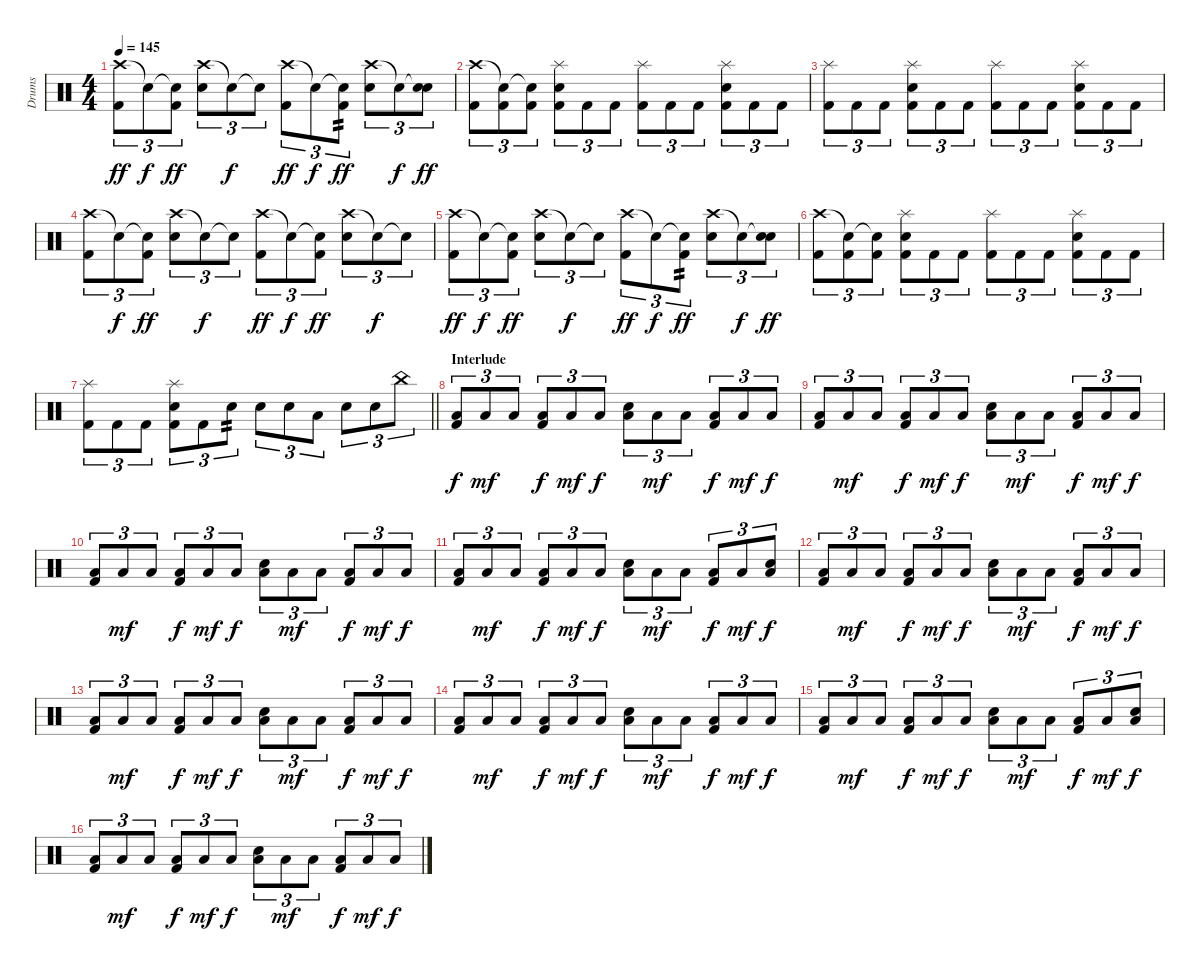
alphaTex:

\track ("Drums" "Drums") {instrument percussion}
\staff {score}
\articulation defaults
\ts (4 4)
\tempo 145
\clef neutral
\ks c
("Crash high (hit)" "Kick (hit) 2").8{tu (3 2) dy ff} "Snare (hit)"{t}.8{tu (3 2) dy f} ("Snare (hit)"{t} "Kick (hit) 2").8{tu (3 2) dy ff} ("Crash high (hit)" "Snare (hit) 2").8{tu (3 2)} "Snare (hit)"{t}.8{tu (3 2) dy f} "Snare (hit)"{t}.8{tu (3 2)} ("Crash high (hit)" "Kick (hit) 2").8{tu (3 2) dy ff} "Snare (hit)"{t}.8{tu (3 2) dy f} ("Snare (hit)"{t} "Kick (hit) 2").8{tu (3 2) tp 2 dy ff} ("Crash high (hit)" "Snare (hit) 2").8{tu (3 2)} "Snare (hit)"{t}.8{tu (3 2) dy f} ("Snare (hit)"{t} "Snare (hit) 2").8{tu (3 2) dy ff} |
("Crash high (hit)" "Kick (hit) 2").8{tu (3 2)} ("Snare (hit)"{t} "Kick (hit) 2").8{tu (3 2)} ("Snare (hit)"{t} "Kick (hit) 2").8{tu (3 2)} ("Splash (hit)" "Snare (hit) 2" "Kick (hit) 2").8{tu (3 2)} "Kick (hit) 2".8{tu (3 2)} "Kick (hit) 2".8{tu (3 2)} ("Splash (hit)" "Kick (hit) 2").8{tu (3 2)} "Kick (hit) 2".8{tu (3 2)} "Kick (hit) 2".8{tu (3 2)} ("Splash (hit)" "Kick (hit) 2" "Snare (hit) 2").8{tu (3 2)} "Kick (hit) 2".8{tu (3 2)} "Kick (hit) 2".8{tu (3 2)} |
("Splash (hit)" "Kick (hit) 2").8{tu (3 2)} "Kick (hit) 2".8{tu (3 2)} "Kick (hit) 2".8{tu (3 2)} ("Splash (hit)" "Snare (hit) 2" "Kick (hit) 2").8{tu (3 2)} "Kick (hit) 2".8{tu (3 2)} "Kick (hit) 2".8{tu (3 2)} ("Splash (hit)" "Kick (hit) 2").8{tu (3 2)} "Kick (hit) 2".8{tu (3 2)} "Kick (hit) 2".8{tu (3 2)} ("Splash (hit)" "Kick (hit) 2" "Snare (hit) 2").8{tu (3 2)} "Kick (hit) 2".8{tu (3 2)} "Kick (hit) 2".8{tu (3 2)} |
("Crash high (hit)" "Kick (hit) 2").8{tu (3 2)} "Snare (hit)"{t}.8{tu (3 2) dy f} ("Snare (hit)"{t} "Kick (hit) 2").8{tu (3 2) dy ff} ("Crash high (hit)" "Snare (hit) 2").8{tu (3 2)} "Snare (hit)"{t}.8{tu (3 2) dy f} "Snare (hit)"{t}.8{tu (3 2)} ("Crash high (hit)" "Kick (hit) 2").8{tu (3 2) dy ff} "Snare (hit)"{t}.8{tu (3 2) dy f} ("Snare (hit)"{t} "Kick (hit) 2").8{tu (3 2) dy ff} ("Crash high (hit)" "Snare (hit) 2").8{tu (3 2)} "Snare (hit)"{t}.8{tu (3 2) dy f} "Snare (hit)"{t}.8{tu (3 2)} |
("Crash high (hit)" "Kick (hit) 2").8{tu (3 2) dy ff} "Snare (hit)"{t}.8{tu (3 2) dy f} ("Snare (hit)"{t} "Kick (hit) 2").8{tu (3 2) dy ff} ("Crash high (hit)" "Snare (hit) 2").8{tu (3 2)} "Snare (hit)"{t}.8{tu (3 2) dy f} "Snare (hit)"{t}.8{tu (3 2)} ("Crash high (hit)" "Kick (hit) 2").8{tu (3 2) dy ff} "Snare (hit)"{t}.8{tu (3 2) dy f} ("Snare (hit)"{t} "Kick (hit) 2").8{tu (3 2) tp 2 dy ff} ("Crash high (hit)" "Snare (hit) 2").8{tu (3 2)} "Snare (hit)"{t}.8{tu (3 2) dy f} ("Snare (hit)"{t} "Snare (hit) 2").8{tu (3 2) dy ff} |
("Crash high (hit)" "Kick (hit) 2").8{tu (3 2)} ("Snare (hit)"{t} "Kick (hit) 2").8{tu (3 2)} ("Snare (hit)"{t} "Kick (hit) 2").8{tu (3 2)} ("Splash (hit)" "Snare (hit) 2" "Kick (hit) 2").8{tu (3 2)} "Kick (hit) 2".8{tu (3 2)} "Kick (hit) 2".8{tu (3 2)} ("Splash (hit)" "Kick (hit) 2").8{tu (3 2)} "Kick (hit) 2".8{tu (3 2)} "Kick (hit) 2".8{tu (3 2)} ("Splash (hit)" "Kick (hit) 2" "Snare (hit) 2").8{tu (3 2)} "Kick (hit) 2".8{tu (3 2)} "Kick (hit) 2".8{tu (3 2)} |
\barLineRight lightlight
("Splash (hit)" "Kick (hit) 2").8{tu (3 2)} "Kick (hit) 2".8{tu (3 2)} "Kick (hit) 2".8{tu (3 2)} ("Splash (hit)" "Snare (hit) 2" "Kick (hit) 2").8{tu (3 2)} "Kick (hit) 2".8{tu (3 2)} "Electric Snare (hit)".8{tu (3 2) tp 2} "Electric Snare (hit)".8{tu (3 2)} "Electric Snare (hit)".8{tu (3 2)} "Low Floor Tom (hit)".8{tu (3 2)} "Electric Snare (hit)".8{tu (3 2)} "Electric Snare (hit)".8{tu (3 2)} "China (hit)".8{tu (3 2)} |
\section ("" "Interlude")
("Kick (hit) 2" "Low Floor Tom (hit)").8{tu (3 2) dy f} "Low Floor Tom (hit)".8{tu (3 2) dy mf} "Low Floor Tom (hit)".8{tu (3 2)} ("Kick (hit) 2" "Low Floor Tom (hit)").8{tu (3 2) dy f} "Low Floor Tom (hit)".8{tu (3 2) dy mf} "Low Floor Tom (hit)".8{tu (3 2) dy f} ("Snare (hit) 2" "Low Floor Tom (hit)").8{tu (3 2)} "Low Floor Tom (hit)".8{tu (3 2) dy mf} "Low Floor Tom (hit)".8{tu (3 2)} ("Kick (hit) 2" "Low Floor Tom (hit)").8{tu (3 2) dy f} "Low Floor Tom (hit)".8{tu (3 2) dy mf} "Low Floor Tom (hit)".8{tu (3 2) dy f} |
("Kick (hit) 2" "Low Floor Tom (hit)").8{tu (3 2)} "Low Floor Tom (hit)".8{tu (3 2) dy mf} "Low Floor Tom (hit)".8{tu (3 2)} ("Kick (hit) 2" "Low Floor Tom (hit)").8{tu (3 2) dy f} "Low Floor Tom (hit)".8{tu (3 2) dy mf} "Low Floor Tom (hit)".8{tu (3 2) dy f} ("Snare (hit) 2" "Low Floor Tom (hit)").8{tu (3 2)} "Low Floor Tom (hit)".8{tu (3 2) dy mf} "Low Floor Tom (hit)".8{tu (3 2)} ("Kick (hit) 2" "Low Floor Tom (hit)").8{tu (3 2) dy f} "Low Floor Tom (hit)".8{tu (3 2) dy mf} "Low Floor Tom (hit)".8{tu (3 2) dy f} |
("Kick (hit) 2" "Low Floor Tom (hit)").8{tu (3 2)} "Low Floor Tom (hit)".8{tu (3 2) dy mf} "Low Floor Tom (hit)".8{tu (3 2)} ("Kick (hit) 2" "Low Floor Tom (hit)").8{tu (3 2) dy f} "Low Floor Tom (hit)".8{tu (3 2) dy mf} "Low Floor Tom (hit)".8{tu (3 2) dy f} ("Snare (hit) 2" "Low Floor Tom (hit)").8{tu (3 2)} "Low Floor Tom (hit)".8{tu (3 2) dy mf} "Low Floor Tom (hit)".8{tu (3 2)} ("Kick (hit) 2" "Low Floor Tom (hit)").8{tu (3 2) dy f} "Low Floor Tom (hit)".8{tu (3 2) dy mf} "Low Floor Tom (hit)".8{tu (3 2) dy f} |
("Kick (hit) 2" "Low Floor Tom (hit)").8{tu (3 2)} "Low Floor Tom (hit)".8{tu (3 2) dy mf} "Low Floor Tom (hit)".8{tu (3 2)} ("Kick (hit) 2" "Low Floor Tom (hit)").8{tu (3 2) dy f} "Low Floor Tom (hit)".8{tu (3 2) dy mf} "Low Floor Tom (hit)".8{tu (3 2) dy f} ("Snare (hit) 2" "Low Floor Tom (hit)").8{tu (3 2)} "Low Floor Tom (hit)".8{tu (3 2) dy mf} "Low Floor Tom (hit)".8{tu (3 2)} ("Kick (hit) 2" "Low Floor Tom (hit)").8{tu (3 2) dy f} "Low Floor Tom (hit)".8{tu (3 2) dy mf} ("Electric Snare (hit)" "Low Floor Tom (hit)").8{tu (3 2) dy f} |
("Kick (hit) 2" "Low Floor Tom (hit)").8{tu (3 2)} "Low Floor Tom (hit)".8{tu (3 2) dy mf} "Low Floor Tom (hit)".8{tu (3 2)} ("Kick (hit) 2" "Low Floor Tom (hit)").8{tu (3 2) dy f} "Low Floor Tom (hit)".8{tu (3 2) dy mf} "Low Floor Tom (hit)".8{tu (3 2) dy f} ("Snare (hit) 2" "Low Floor Tom (hit)").8{tu (3 2)} "Low Floor Tom (hit)".8{tu (3 2) dy mf} "Low Floor Tom (hit)".8{tu (3 2)} ("Kick (hit) 2" "Low Floor Tom (hit)").8{tu (3 2) dy f} "Low Floor Tom (hit)".8{tu (3 2) dy mf} "Low Floor Tom (hit)".8{tu (3 2) dy f} |
("Kick (hit) 2" "Low Floor Tom (hit)").8{tu (3 2)} "Low Floor Tom (hit)".8{tu (3 2) dy mf} "Low Floor Tom (hit)".8{tu (3 2)} ("Kick (hit) 2" "Low Floor Tom (hit)").8{tu (3 2) dy f} "Low Floor Tom (hit)".8{tu (3 2) dy mf} "Low Floor Tom (hit)".8{tu (3 2) dy f} ("Snare (hit) 2" "Low Floor Tom (hit)").8{tu (3 2)} "Low Floor Tom (hit)".8{tu (3 2) dy mf} "Low Floor Tom (hit)".8{tu (3 2)} ("Kick (hit) 2" "Low Floor Tom (hit)").8{tu (3 2) dy f} "Low Floor Tom (hit)".8{tu (3 2) dy mf} "Low Floor Tom (hit)".8{tu (3 2) dy f} |
("Kick (hit) 2" "Low Floor Tom (hit)").8{tu (3 2)} "Low Floor Tom (hit)".8{tu (3 2) dy mf} "Low Floor Tom (hit)".8{tu (3 2)} ("Kick (hit) 2" "Low Floor Tom (hit)").8{tu (3 2) dy f} "Low Floor Tom (hit)".8{tu (3 2) dy mf} "Low Floor Tom (hit)".8{tu (3 2) dy f} ("Snare (hit) 2" "Low Floor Tom (hit)").8{tu (3 2)} "Low Floor Tom (hit)".8{tu (3 2) dy mf} "Low Floor Tom (hit)".8{tu (3 2)} ("Kick (hit) 2" "Low Floor Tom (hit)").8{tu (3 2) dy f} "Low Floor Tom (hit)".8{tu (3 2) dy mf} "Low Floor Tom (hit)".8{tu (3 2) dy f} |
("Kick (hit) 2" "Low Floor Tom (hit)").8{tu (3 2)} "Low Floor Tom (hit)".8{tu (3 2) dy mf} "Low Floor Tom (hit)".8{tu (3 2)} ("Kick (hit) 2" "Low Floor Tom (hit)").8{tu (3 2) dy f} "Low Floor Tom (hit)".8{tu (3 2) dy mf} "Low Floor Tom (hit)".8{tu (3 2) dy f} ("Snare (hit) 2" "Low Floor Tom (hit)").8{tu (3 2)} "Low Floor Tom (hit)".8{tu (3 2) dy mf} "Low Floor Tom (hit)".8{tu (3 2)} ("Kick (hit) 2" "Low Floor Tom (hit)").8{tu (3 2) dy f} "Low Floor Tom (hit)".8{tu (3 2) dy mf} ("Electric Snare (hit)" "Low Floor Tom (hit)").8{tu (3 2) dy f} |
("Kick (hit) 2" "Low Floor Tom (hit)").8{tu (3 2)} "Low Floor Tom (hit)".8{tu (3 2) dy mf} "Low Floor Tom (hit)".8{tu (3 2)} ("Kick (hit) 2" "Low Floor Tom (hit)").8{tu (3 2) dy f} "Low Floor Tom (hit)".8{tu (3 2) dy mf} "Low Floor Tom (hit)".8{tu (3 2) dy f} ("Snare (hit) 2" "Low Floor Tom (hit)").8{tu (3 2)} "Low Floor Tom (hit)".8{tu (3 2) dy mf} "Low Floor Tom (hit)".8{tu (3 2)} ("Kick (hit) 2" "Low Floor Tom (hit)").8{tu (3 2) dy f} "Low Floor Tom (hit)".8{tu (3 2) dy mf} "Low Floor Tom (hit)".8{tu (3 2) dy f}
